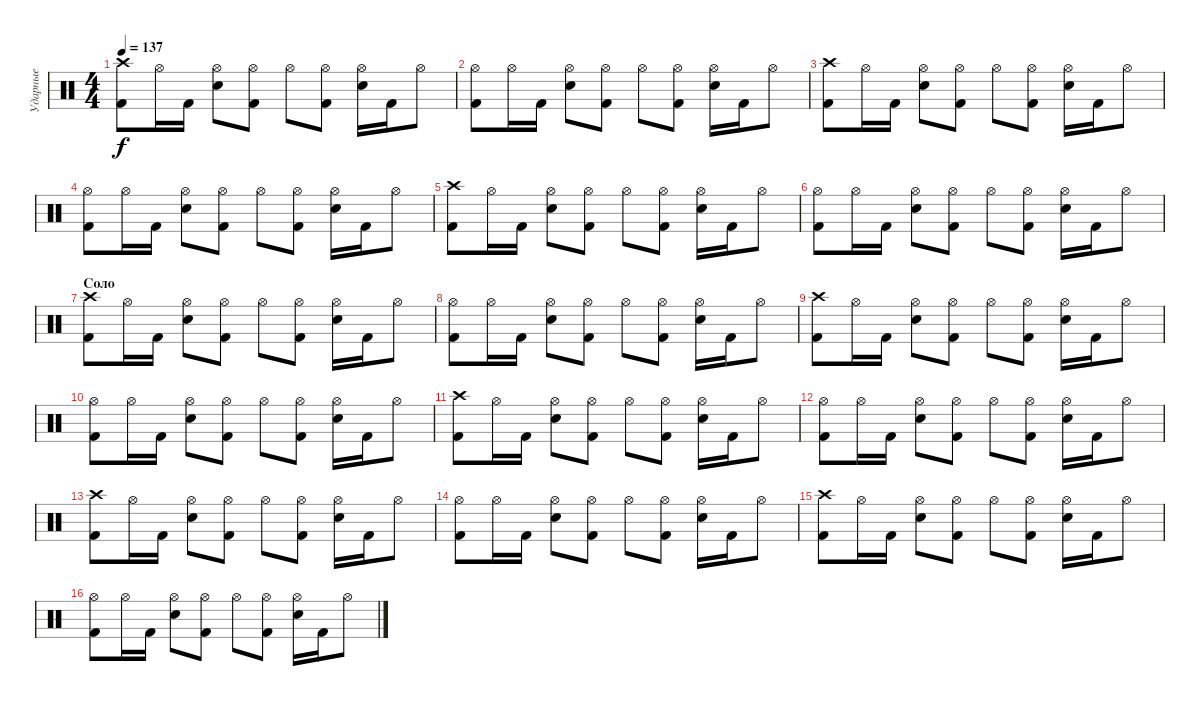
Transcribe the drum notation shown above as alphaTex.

\track ("Ударные" "Ударные") {instrument percussion}
\staff {score}
\articulation defaults
\ts (4 4)
\tempo 137
\clef neutral
\ks c
("Crash high (hit)" "Kick (hit) 2").8{dy f} "Hi-Hat (open)".16 "Kick (hit) 2".16 ("Hi-Hat (open)" "Electric Snare (hit)").8 ("Hi-Hat (open)" "Kick (hit) 2").8 "Hi-Hat (open)".8 ("Hi-Hat (open)" "Kick (hit) 2").8 ("Hi-Hat (open)" "Electric Snare (hit)").16 "Kick (hit) 2".16 "Hi-Hat (open)".8 |
("Hi-Hat (open)" "Kick (hit) 2").8 "Hi-Hat (open)".16 "Kick (hit) 2".16 ("Hi-Hat (open)" "Electric Snare (hit)").8 ("Hi-Hat (open)" "Kick (hit) 2").8 "Hi-Hat (open)".8 ("Hi-Hat (open)" "Kick (hit) 2").8 ("Hi-Hat (open)" "Electric Snare (hit)").16 "Kick (hit) 2".16 "Hi-Hat (open)".8 |
("Crash high (hit)" "Kick (hit) 2").8 "Hi-Hat (open)".16 "Kick (hit) 2".16 ("Hi-Hat (open)" "Electric Snare (hit)").8 ("Hi-Hat (open)" "Kick (hit) 2").8 "Hi-Hat (open)".8 ("Hi-Hat (open)" "Kick (hit) 2").8 ("Hi-Hat (open)" "Electric Snare (hit)").16 "Kick (hit) 2".16 "Hi-Hat (open)".8 |
("Hi-Hat (open)" "Kick (hit) 2").8 "Hi-Hat (open)".16 "Kick (hit) 2".16 ("Hi-Hat (open)" "Electric Snare (hit)").8 ("Hi-Hat (open)" "Kick (hit) 2").8 "Hi-Hat (open)".8 ("Hi-Hat (open)" "Kick (hit) 2").8 ("Hi-Hat (open)" "Electric Snare (hit)").16 "Kick (hit) 2".16 "Hi-Hat (open)".8 |
("Crash high (hit)" "Kick (hit) 2").8 "Hi-Hat (open)".16 "Kick (hit) 2".16 ("Hi-Hat (open)" "Electric Snare (hit)").8 ("Hi-Hat (open)" "Kick (hit) 2").8 "Hi-Hat (open)".8 ("Hi-Hat (open)" "Kick (hit) 2").8 ("Hi-Hat (open)" "Electric Snare (hit)").16 "Kick (hit) 2".16 "Hi-Hat (open)".8 |
("Hi-Hat (open)" "Kick (hit) 2").8 "Hi-Hat (open)".16 "Kick (hit) 2".16 ("Hi-Hat (open)" "Electric Snare (hit)").8 ("Hi-Hat (open)" "Kick (hit) 2").8 "Hi-Hat (open)".8 ("Hi-Hat (open)" "Kick (hit) 2").8 ("Hi-Hat (open)" "Electric Snare (hit)").16 "Kick (hit) 2".16 "Hi-Hat (open)".8 |
\section ("" "Соло")
("Crash high (hit)" "Kick (hit) 2").8 "Hi-Hat (open)".16 "Kick (hit) 2".16 ("Hi-Hat (open)" "Electric Snare (hit)").8 ("Hi-Hat (open)" "Kick (hit) 2").8 "Hi-Hat (open)".8 ("Hi-Hat (open)" "Kick (hit) 2").8 ("Hi-Hat (open)" "Electric Snare (hit)").16 "Kick (hit) 2".16 "Hi-Hat (open)".8 |
("Hi-Hat (open)" "Kick (hit) 2").8 "Hi-Hat (open)".16 "Kick (hit) 2".16 ("Hi-Hat (open)" "Electric Snare (hit)").8 ("Hi-Hat (open)" "Kick (hit) 2").8 "Hi-Hat (open)".8 ("Hi-Hat (open)" "Kick (hit) 2").8 ("Hi-Hat (open)" "Electric Snare (hit)").16 "Kick (hit) 2".16 "Hi-Hat (open)".8 |
("Crash high (hit)" "Kick (hit) 2").8 "Hi-Hat (open)".16 "Kick (hit) 2".16 ("Hi-Hat (open)" "Electric Snare (hit)").8 ("Hi-Hat (open)" "Kick (hit) 2").8 "Hi-Hat (open)".8 ("Hi-Hat (open)" "Kick (hit) 2").8 ("Hi-Hat (open)" "Electric Snare (hit)").16 "Kick (hit) 2".16 "Hi-Hat (open)".8 |
("Hi-Hat (open)" "Kick (hit) 2").8 "Hi-Hat (open)".16 "Kick (hit) 2".16 ("Hi-Hat (open)" "Electric Snare (hit)").8 ("Hi-Hat (open)" "Kick (hit) 2").8 "Hi-Hat (open)".8 ("Hi-Hat (open)" "Kick (hit) 2").8 ("Hi-Hat (open)" "Electric Snare (hit)").16 "Kick (hit) 2".16 "Hi-Hat (open)".8 |
("Crash high (hit)" "Kick (hit) 2").8 "Hi-Hat (open)".16 "Kick (hit) 2".16 ("Hi-Hat (open)" "Electric Snare (hit)").8 ("Hi-Hat (open)" "Kick (hit) 2").8 "Hi-Hat (open)".8 ("Hi-Hat (open)" "Kick (hit) 2").8 ("Hi-Hat (open)" "Electric Snare (hit)").16 "Kick (hit) 2".16 "Hi-Hat (open)".8 |
("Hi-Hat (open)" "Kick (hit) 2").8 "Hi-Hat (open)".16 "Kick (hit) 2".16 ("Hi-Hat (open)" "Electric Snare (hit)").8 ("Hi-Hat (open)" "Kick (hit) 2").8 "Hi-Hat (open)".8 ("Hi-Hat (open)" "Kick (hit) 2").8 ("Hi-Hat (open)" "Electric Snare (hit)").16 "Kick (hit) 2".16 "Hi-Hat (open)".8 |
("Crash high (hit)" "Kick (hit) 2").8 "Hi-Hat (open)".16 "Kick (hit) 2".16 ("Hi-Hat (open)" "Electric Snare (hit)").8 ("Hi-Hat (open)" "Kick (hit) 2").8 "Hi-Hat (open)".8 ("Hi-Hat (open)" "Kick (hit) 2").8 ("Hi-Hat (open)" "Electric Snare (hit)").16 "Kick (hit) 2".16 "Hi-Hat (open)".8 |
("Hi-Hat (open)" "Kick (hit) 2").8 "Hi-Hat (open)".16 "Kick (hit) 2".16 ("Hi-Hat (open)" "Electric Snare (hit)").8 ("Hi-Hat (open)" "Kick (hit) 2").8 "Hi-Hat (open)".8 ("Hi-Hat (open)" "Kick (hit) 2").8 ("Hi-Hat (open)" "Electric Snare (hit)").16 "Kick (hit) 2".16 "Hi-Hat (open)".8 |
("Crash high (hit)" "Kick (hit) 2").8 "Hi-Hat (open)".16 "Kick (hit) 2".16 ("Hi-Hat (open)" "Electric Snare (hit)").8 ("Hi-Hat (open)" "Kick (hit) 2").8 "Hi-Hat (open)".8 ("Hi-Hat (open)" "Kick (hit) 2").8 ("Hi-Hat (open)" "Electric Snare (hit)").16 "Kick (hit) 2".16 "Hi-Hat (open)".8 |
("Hi-Hat (open)" "Kick (hit) 2").8 "Hi-Hat (open)".16 "Kick (hit) 2".16 ("Hi-Hat (open)" "Electric Snare (hit)").8 ("Hi-Hat (open)" "Kick (hit) 2").8 "Hi-Hat (open)".8 ("Hi-Hat (open)" "Kick (hit) 2").8 ("Hi-Hat (open)" "Electric Snare (hit)").16 "Kick (hit) 2".16 "Hi-Hat (open)".8
